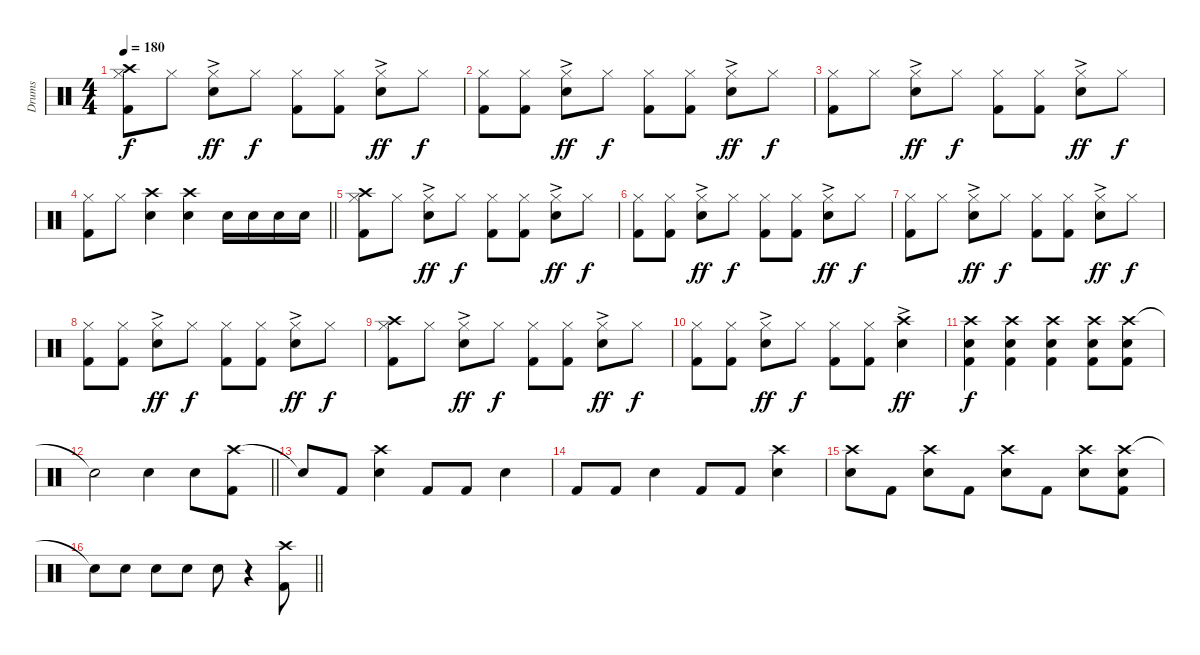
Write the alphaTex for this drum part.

\track ("Drums" "Drums") {instrument percussion}
\staff {score}
\articulation defaults
\ts (4 4)
\tempo 180
\clef neutral
\ks c
("Hi-Hat (closed)" "Crash high (hit)" "Kick (hit) 2").8{dy f} "Hi-Hat (closed)".8 ("Hi-Hat (closed)"{ac} "Snare (hit) 2").8{dy ff} "Hi-Hat (closed)".8{dy f} ("Hi-Hat (closed)" "Kick (hit) 2").8 ("Hi-Hat (closed)" "Kick (hit) 2").8 ("Hi-Hat (closed)"{ac} "Snare (hit) 2").8{dy ff} "Hi-Hat (closed)".8{dy f} |
("Hi-Hat (closed)" "Kick (hit) 2").8 ("Hi-Hat (closed)" "Kick (hit) 2").8 ("Hi-Hat (closed)"{ac} "Snare (hit) 2").8{dy ff} "Hi-Hat (closed)".8{dy f} ("Hi-Hat (closed)" "Kick (hit) 2").8 ("Hi-Hat (closed)" "Kick (hit) 2").8 ("Hi-Hat (closed)"{ac} "Snare (hit) 2").8{dy ff} "Hi-Hat (closed)".8{dy f} |
("Hi-Hat (closed)" "Kick (hit) 2").8 "Hi-Hat (closed)".8 ("Hi-Hat (closed)"{ac} "Snare (hit) 2").8{dy ff} "Hi-Hat (closed)".8{dy f} ("Hi-Hat (closed)" "Kick (hit) 2").8 ("Hi-Hat (closed)" "Kick (hit) 2").8 ("Hi-Hat (closed)"{ac} "Snare (hit) 2").8{dy ff} "Hi-Hat (closed)".8{dy f} |
\barLineRight lightlight
("Hi-Hat (closed)" "Kick (hit) 2").8 "Hi-Hat (closed)".8 ("Crash high (hit)" "Snare (hit) 2").4 ("Crash high (hit)" "Snare (hit) 2").4 "Snare (hit) 2".16 "Snare (hit) 2".16 "Snare (hit) 2".16 "Snare (hit) 2".16 |
("Hi-Hat (closed)" "Crash high (hit)" "Kick (hit) 2").8 "Hi-Hat (closed)".8 ("Hi-Hat (closed)"{ac} "Snare (hit) 2").8{dy ff} "Hi-Hat (closed)".8{dy f} ("Hi-Hat (closed)" "Kick (hit) 2").8 ("Hi-Hat (closed)" "Kick (hit) 2").8 ("Hi-Hat (closed)"{ac} "Snare (hit) 2").8{dy ff} "Hi-Hat (closed)".8{dy f} |
("Hi-Hat (closed)" "Kick (hit) 2").8 ("Hi-Hat (closed)" "Kick (hit) 2").8 ("Hi-Hat (closed)"{ac} "Snare (hit) 2").8{dy ff} "Hi-Hat (closed)".8{dy f} ("Hi-Hat (closed)" "Kick (hit) 2").8 ("Hi-Hat (closed)" "Kick (hit) 2").8 ("Hi-Hat (closed)"{ac} "Snare (hit) 2").8{dy ff} "Hi-Hat (closed)".8{dy f} |
("Hi-Hat (closed)" "Kick (hit) 2").8 "Hi-Hat (closed)".8 ("Hi-Hat (closed)"{ac} "Snare (hit) 2").8{dy ff} "Hi-Hat (closed)".8{dy f} ("Hi-Hat (closed)" "Kick (hit) 2").8 ("Hi-Hat (closed)" "Kick (hit) 2").8 ("Hi-Hat (closed)"{ac} "Snare (hit) 2").8{dy ff} "Hi-Hat (closed)".8{dy f} |
("Hi-Hat (closed)" "Kick (hit) 2").8 ("Hi-Hat (closed)" "Kick (hit) 2").8 ("Hi-Hat (closed)"{ac} "Snare (hit) 2").8{dy ff} "Hi-Hat (closed)".8{dy f} ("Hi-Hat (closed)" "Kick (hit) 2").8 ("Hi-Hat (closed)" "Kick (hit) 2").8 ("Hi-Hat (closed)"{ac} "Snare (hit) 2").8{dy ff} "Hi-Hat (closed)".8{dy f} |
("Hi-Hat (closed)" "Crash high (hit)" "Kick (hit) 2").8 "Hi-Hat (closed)".8 ("Hi-Hat (closed)"{ac} "Snare (hit) 2").8{dy ff} "Hi-Hat (closed)".8{dy f} ("Hi-Hat (closed)" "Kick (hit) 2").8 ("Hi-Hat (closed)" "Kick (hit) 2").8 ("Hi-Hat (closed)"{ac} "Snare (hit) 2").8{dy ff} "Hi-Hat (closed)".8{dy f} |
("Hi-Hat (closed)" "Kick (hit) 2").8 ("Hi-Hat (closed)" "Kick (hit) 2").8 ("Hi-Hat (closed)"{ac} "Snare (hit) 2").8{dy ff} "Hi-Hat (closed)".8{dy f} ("Hi-Hat (closed)" "Kick (hit) 2").8 ("Hi-Hat (closed)" "Kick (hit) 2").8 ("Crash high (hit)"{ac} "Snare (hit) 2").4{dy ff} |
("Crash high (hit)" "Snare (hit) 2" "Kick (hit) 2").4{dy f} ("Crash high (hit)" "Snare (hit) 2" "Kick (hit) 2").4 ("Crash high (hit)" "Snare (hit) 2" "Kick (hit) 2").4 ("Crash high (hit)" "Snare (hit) 2" "Kick (hit) 2").8 ("Crash high (hit)" "Snare (hit) 2" "Kick (hit) 2").8 |
\barLineRight lightlight "Snare (hit)"{t}.2 "Snare (hit) 2".4 "Snare (hit) 2".8
("Crash high (hit)" "Kick (hit) 2").8 |
"Snare (hit)"{t}.8 "Kick (hit) 2".8 ("Crash high (hit)" "Snare (hit) 2").4 "Kick (hit) 2".8 "Kick (hit) 2".8 "Snare (hit) 2".4 |
"Kick (hit) 2".8 "Kick (hit) 2".8 "Snare (hit) 2".4 "Kick (hit) 2".8 "Kick (hit) 2".8 ("Crash high (hit)" "Snare (hit) 2").4 |
("Crash high (hit)" "Snare (hit) 2").8 "Kick (hit) 2".8 ("Crash high (hit)" "Snare (hit) 2").8 "Kick (hit) 2".8 ("Crash high (hit)" "Snare (hit) 2").8 "Kick (hit) 2".8 ("Crash high (hit)" "Snare (hit) 2").8 ("Crash high (hit)" "Snare (hit) 2" "Kick (hit) 2").8 |
\barLineRight lightlight "Snare (hit)"{t}.8 "Snare (hit) 2".8 "Snare (hit) 2".8 "Snare (hit) 2".8 "Snare (hit) 2".8
r.4 ("Crash high (hit)" "Kick (hit) 2").8
